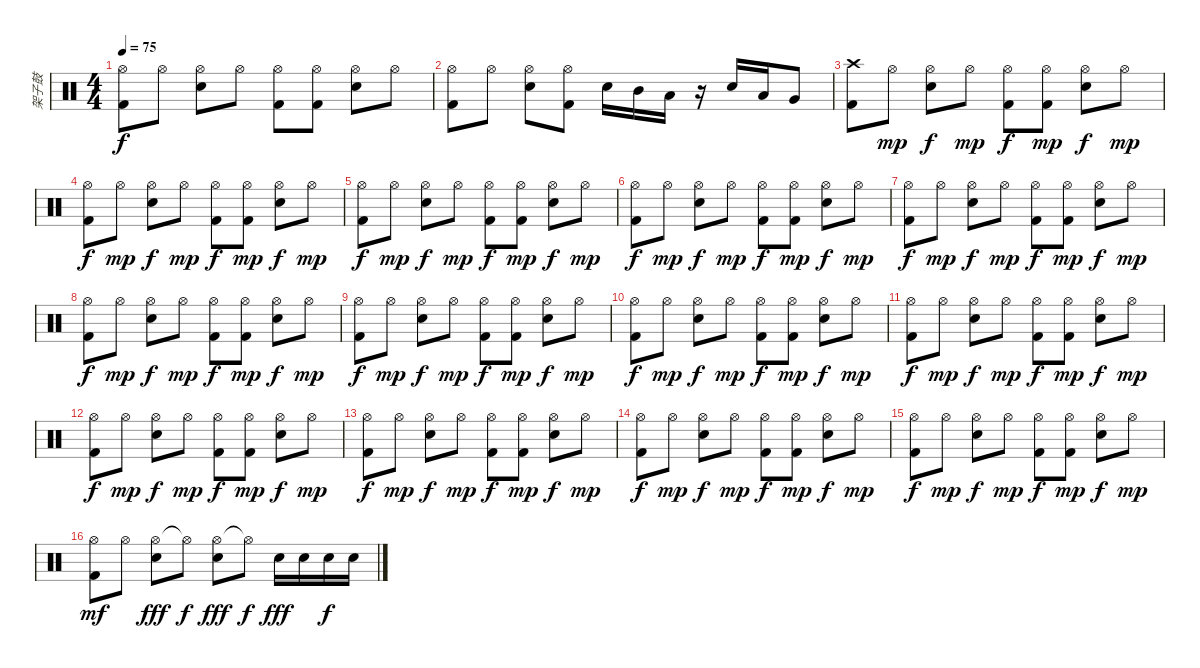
\track ("架子鼓" "架子鼓") {instrument percussion}
\staff {score}
\articulation defaults
\ts (4 4)
\tempo 75
\clef neutral
\ks c
("Hi-Hat (open)" "Kick (hit) 2").8{dy f} "Hi-Hat (open)".8 ("Hi-Hat (open)" "Electric Snare (hit)").8 "Hi-Hat (open)".8 ("Hi-Hat (open)" "Kick (hit) 2").8 ("Hi-Hat (open)" "Kick (hit) 2").8 ("Hi-Hat (open)" "Electric Snare (hit)").8 "Hi-Hat (open)".8 |
("Hi-Hat (open)" "Kick (hit) 2").8 "Hi-Hat (open)".8 ("Hi-Hat (open)" "Electric Snare (hit)").8 ("Hi-Hat (open)" "Kick (hit) 2").8 "Electric Snare (hit)".16 "Mid Tom (hit)".16 "Low Tom (hit)".16 r.16 "Electric Snare (hit)".16 "Low Tom (hit)".16 "Very Low Tom (hit)".8 |
("Crash high (hit)" "Kick (hit) 2").8 "Hi-Hat (open)".8{dy mp} ("Hi-Hat (open)" "Electric Snare (hit)").8{dy f} "Hi-Hat (open)".8{dy mp} ("Hi-Hat (open)" "Kick (hit) 2").8{dy f} ("Hi-Hat (open)" "Kick (hit) 2").8{dy mp} ("Hi-Hat (open)" "Electric Snare (hit)").8{dy f} "Hi-Hat (open)".8{dy mp} |
("Hi-Hat (open)" "Kick (hit) 2").8{dy f} "Hi-Hat (open)".8{dy mp} ("Hi-Hat (open)" "Electric Snare (hit)").8{dy f} "Hi-Hat (open)".8{dy mp} ("Hi-Hat (open)" "Kick (hit) 2").8{dy f} ("Hi-Hat (open)" "Kick (hit) 2").8{dy mp} ("Hi-Hat (open)" "Electric Snare (hit)").8{dy f} "Hi-Hat (open)".8{dy mp} |
("Hi-Hat (open)" "Kick (hit) 2").8{dy f} "Hi-Hat (open)".8{dy mp} ("Hi-Hat (open)" "Electric Snare (hit)").8{dy f} "Hi-Hat (open)".8{dy mp} ("Hi-Hat (open)" "Kick (hit) 2").8{dy f} ("Hi-Hat (open)" "Kick (hit) 2").8{dy mp} ("Hi-Hat (open)" "Electric Snare (hit)").8{dy f} "Hi-Hat (open)".8{dy mp} |
("Hi-Hat (open)" "Kick (hit) 2").8{dy f} "Hi-Hat (open)".8{dy mp} ("Hi-Hat (open)" "Electric Snare (hit)").8{dy f} "Hi-Hat (open)".8{dy mp} ("Hi-Hat (open)" "Kick (hit) 2").8{dy f} ("Hi-Hat (open)" "Kick (hit) 2").8{dy mp} ("Hi-Hat (open)" "Electric Snare (hit)").8{dy f} "Hi-Hat (open)".8{dy mp} |
("Hi-Hat (open)" "Kick (hit) 2").8{dy f} "Hi-Hat (open)".8{dy mp} ("Hi-Hat (open)" "Electric Snare (hit)").8{dy f} "Hi-Hat (open)".8{dy mp} ("Hi-Hat (open)" "Kick (hit) 2").8{dy f} ("Hi-Hat (open)" "Kick (hit) 2").8{dy mp} ("Hi-Hat (open)" "Electric Snare (hit)").8{dy f} "Hi-Hat (open)".8{dy mp} |
("Hi-Hat (open)" "Kick (hit) 2").8{dy f} "Hi-Hat (open)".8{dy mp} ("Hi-Hat (open)" "Electric Snare (hit)").8{dy f} "Hi-Hat (open)".8{dy mp} ("Hi-Hat (open)" "Kick (hit) 2").8{dy f} ("Hi-Hat (open)" "Kick (hit) 2").8{dy mp} ("Hi-Hat (open)" "Electric Snare (hit)").8{dy f} "Hi-Hat (open)".8{dy mp} |
("Hi-Hat (open)" "Kick (hit) 2").8{dy f} "Hi-Hat (open)".8{dy mp} ("Hi-Hat (open)" "Electric Snare (hit)").8{dy f} "Hi-Hat (open)".8{dy mp} ("Hi-Hat (open)" "Kick (hit) 2").8{dy f} ("Hi-Hat (open)" "Kick (hit) 2").8{dy mp} ("Hi-Hat (open)" "Electric Snare (hit)").8{dy f} "Hi-Hat (open)".8{dy mp} |
("Hi-Hat (open)" "Kick (hit) 2").8{dy f} "Hi-Hat (open)".8{dy mp} ("Hi-Hat (open)" "Electric Snare (hit)").8{dy f} "Hi-Hat (open)".8{dy mp} ("Hi-Hat (open)" "Kick (hit) 2").8{dy f} ("Hi-Hat (open)" "Kick (hit) 2").8{dy mp} ("Hi-Hat (open)" "Electric Snare (hit)").8{dy f} "Hi-Hat (open)".8{dy mp} |
("Hi-Hat (open)" "Kick (hit) 2").8{dy f} "Hi-Hat (open)".8{dy mp} ("Hi-Hat (open)" "Electric Snare (hit)").8{dy f} "Hi-Hat (open)".8{dy mp} ("Hi-Hat (open)" "Kick (hit) 2").8{dy f} ("Hi-Hat (open)" "Kick (hit) 2").8{dy mp} ("Hi-Hat (open)" "Electric Snare (hit)").8{dy f} "Hi-Hat (open)".8{dy mp} |
("Hi-Hat (open)" "Kick (hit) 2").8{dy f} "Hi-Hat (open)".8{dy mp} ("Hi-Hat (open)" "Electric Snare (hit)").8{dy f} "Hi-Hat (open)".8{dy mp} ("Hi-Hat (open)" "Kick (hit) 2").8{dy f} ("Hi-Hat (open)" "Kick (hit) 2").8{dy mp} ("Hi-Hat (open)" "Electric Snare (hit)").8{dy f} "Hi-Hat (open)".8{dy mp} |
("Hi-Hat (open)" "Kick (hit) 2").8{dy f} "Hi-Hat (open)".8{dy mp} ("Hi-Hat (open)" "Electric Snare (hit)").8{dy f} "Hi-Hat (open)".8{dy mp} ("Hi-Hat (open)" "Kick (hit) 2").8{dy f} ("Hi-Hat (open)" "Kick (hit) 2").8{dy mp} ("Hi-Hat (open)" "Electric Snare (hit)").8{dy f} "Hi-Hat (open)".8{dy mp} |
("Hi-Hat (open)" "Kick (hit) 2").8{dy f} "Hi-Hat (open)".8{dy mp} ("Hi-Hat (open)" "Electric Snare (hit)").8{dy f} "Hi-Hat (open)".8{dy mp} ("Hi-Hat (open)" "Kick (hit) 2").8{dy f} ("Hi-Hat (open)" "Kick (hit) 2").8{dy mp} ("Hi-Hat (open)" "Electric Snare (hit)").8{dy f} "Hi-Hat (open)".8{dy mp} |
("Hi-Hat (open)" "Kick (hit) 2").8{dy f} "Hi-Hat (open)".8{dy mp} ("Hi-Hat (open)" "Electric Snare (hit)").8{dy f} "Hi-Hat (open)".8{dy mp} ("Hi-Hat (open)" "Kick (hit) 2").8{dy f} ("Hi-Hat (open)" "Kick (hit) 2").8{dy mp} ("Hi-Hat (open)" "Electric Snare (hit)").8{dy f} "Hi-Hat (open)".8{dy mp} |
("Hi-Hat (open)" "Kick (hit) 2").8{dy mf} "Hi-Hat (open)".8 ("Hi-Hat (open)" "Electric Snare (hit)").8{dy fff} "Hi-Hat (open)"{t}.8{dy f} ("Hi-Hat (open)" "Electric Snare (hit)").8{dy fff} "Hi-Hat (open)"{t}.8{dy f} "Electric Snare (hit)".16{dy fff} "Electric Snare (hit)".16 "Electric Snare (hit)".16{dy f} "Electric Snare (hit)".16
